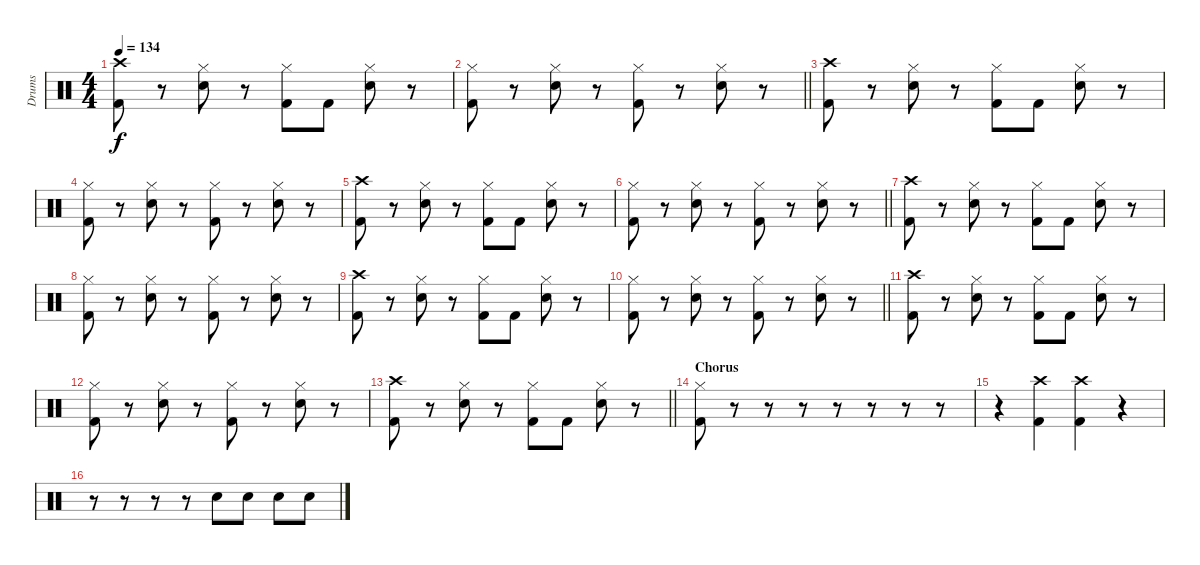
\track ("Drums" "Drums") {instrument percussion}
\staff {score}
\articulation defaults
\ts (4 4)
\tempo 134
\clef neutral
\ks c
("Crash high (hit)" "Kick (hit) 2").8{dy f} r.8 ("Hi-Hat (closed)" "Snare (hit) 2").8 r.8 ("Hi-Hat (closed)" "Kick (hit) 2").8 "Kick (hit) 2".8 ("Hi-Hat (closed)" "Snare (hit) 2").8 r.8 |
\barLineRight lightlight
("Hi-Hat (closed)" "Kick (hit) 2").8 r.8 ("Hi-Hat (closed)" "Snare (hit) 2").8 r.8 ("Hi-Hat (closed)" "Kick (hit) 2").8 r.8 ("Hi-Hat (closed)" "Snare (hit) 2").8 r.8 |
("Crash high (hit)" "Kick (hit) 2").8 r.8 ("Hi-Hat (closed)" "Snare (hit) 2").8 r.8 ("Hi-Hat (closed)" "Kick (hit) 2").8 "Kick (hit) 2".8 ("Hi-Hat (closed)" "Snare (hit) 2").8 r.8 |
("Hi-Hat (closed)" "Kick (hit) 2").8 r.8 ("Hi-Hat (closed)" "Snare (hit) 2").8 r.8 ("Hi-Hat (closed)" "Kick (hit) 2").8 r.8 ("Hi-Hat (closed)" "Snare (hit) 2").8 r.8 |
("Crash high (hit)" "Kick (hit) 2").8 r.8 ("Hi-Hat (closed)" "Snare (hit) 2").8 r.8 ("Hi-Hat (closed)" "Kick (hit) 2").8 "Kick (hit) 2".8 ("Hi-Hat (closed)" "Snare (hit) 2").8 r.8 |
\barLineRight lightlight
("Hi-Hat (closed)" "Kick (hit) 2").8 r.8 ("Hi-Hat (closed)" "Snare (hit) 2").8 r.8 ("Hi-Hat (closed)" "Kick (hit) 2").8 r.8 ("Hi-Hat (closed)" "Snare (hit) 2").8 r.8 |
("Crash high (hit)" "Kick (hit) 2").8 r.8 ("Hi-Hat (closed)" "Snare (hit) 2").8 r.8 ("Hi-Hat (closed)" "Kick (hit) 2").8 "Kick (hit) 2".8 ("Hi-Hat (closed)" "Snare (hit) 2").8 r.8 |
("Hi-Hat (closed)" "Kick (hit) 2").8 r.8 ("Hi-Hat (closed)" "Snare (hit) 2").8 r.8 ("Hi-Hat (closed)" "Kick (hit) 2").8 r.8 ("Hi-Hat (closed)" "Snare (hit) 2").8 r.8 |
("Crash high (hit)" "Kick (hit) 2").8 r.8 ("Hi-Hat (closed)" "Snare (hit) 2").8 r.8 ("Hi-Hat (closed)" "Kick (hit) 2").8 "Kick (hit) 2".8 ("Hi-Hat (closed)" "Snare (hit) 2").8 r.8 |
\barLineRight lightlight
("Hi-Hat (closed)" "Kick (hit) 2").8 r.8 ("Hi-Hat (closed)" "Snare (hit) 2").8 r.8 ("Hi-Hat (closed)" "Kick (hit) 2").8 r.8 ("Hi-Hat (closed)" "Snare (hit) 2").8 r.8 |
("Crash high (hit)" "Kick (hit) 2").8 r.8 ("Hi-Hat (closed)" "Snare (hit) 2").8 r.8 ("Hi-Hat (closed)" "Kick (hit) 2").8 "Kick (hit) 2".8 ("Hi-Hat (closed)" "Snare (hit) 2").8 r.8 |
("Hi-Hat (closed)" "Kick (hit) 2").8 r.8 ("Hi-Hat (closed)" "Snare (hit) 2").8 r.8 ("Hi-Hat (closed)" "Kick (hit) 2").8 r.8 ("Hi-Hat (closed)" "Snare (hit) 2").8 r.8 |
\barLineRight lightlight
("Crash high (hit)" "Kick (hit) 2").8 r.8 ("Hi-Hat (closed)" "Snare (hit) 2").8 r.8 ("Hi-Hat (closed)" "Kick (hit) 2").8 "Kick (hit) 2".8 ("Hi-Hat (closed)" "Snare (hit) 2").8 r.8 |
\section ("" "Chorus")
("Hi-Hat (closed)" "Kick (hit) 2").8 r.8 r.8 r.8 r.8 r.8 r.8 r.8 |
r.4 ("Crash high (hit)" "Kick (hit) 2").4 ("Crash high (hit)" "Kick (hit) 2").4 r.4 |
r.8 r.8 r.8 r.8 "Snare (hit) 2".8 "Snare (hit) 2".8 "Snare (hit) 2".8 "Snare (hit) 2".8
